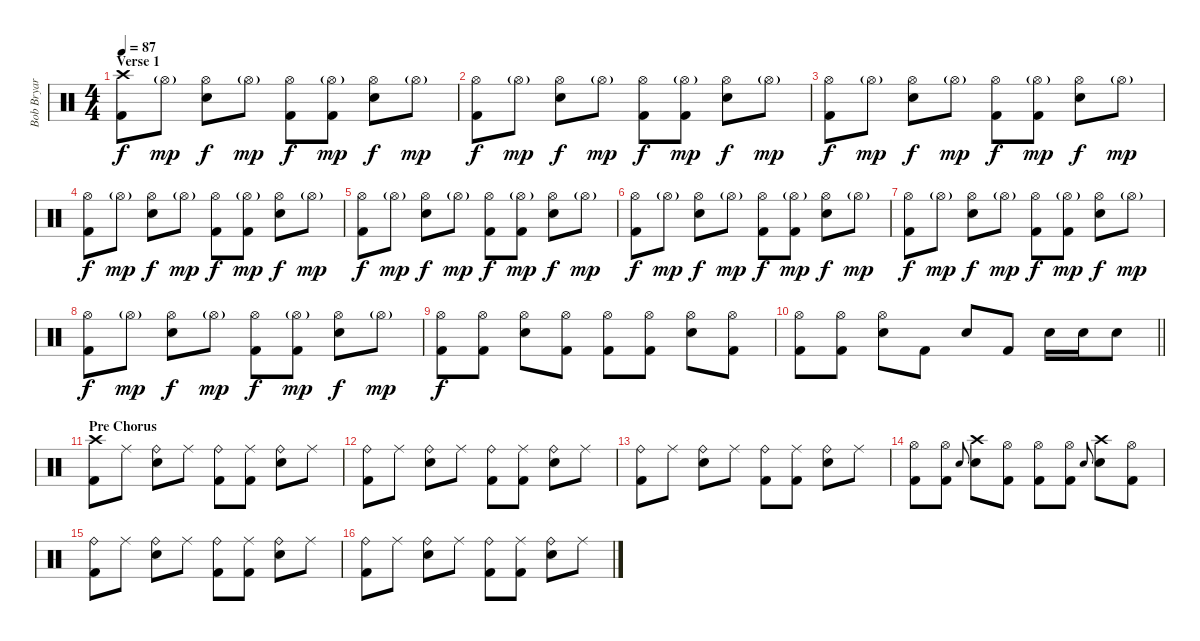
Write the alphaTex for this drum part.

\track ("Bob Bryar" "Bob Bryar") {instrument percussion}
\staff {score}
\articulation defaults
\ts (4 4)
\section ("" "Verse 1")
\tempo 87
\clef neutral
\ks c
("Crash high (hit)" "Kick (hit) 2").8{dy f} "Hi-Hat (open)"{g}.8{dy mp} ("Hi-Hat (open)" "Electric Snare (hit)").8{dy f} "Hi-Hat (open)"{g}.8{dy mp} ("Hi-Hat (open)" "Kick (hit) 2").8{dy f} ("Hi-Hat (open)"{g} "Kick (hit) 2").8{dy mp} ("Hi-Hat (open)" "Electric Snare (hit)").8{dy f} "Hi-Hat (open)"{g}.8{dy mp} |
("Hi-Hat (open)" "Kick (hit) 2").8{dy f} "Hi-Hat (open)"{g}.8{dy mp} ("Hi-Hat (open)" "Electric Snare (hit)").8{dy f} "Hi-Hat (open)"{g}.8{dy mp} ("Hi-Hat (open)" "Kick (hit) 2").8{dy f} ("Hi-Hat (open)"{g} "Kick (hit) 2").8{dy mp} ("Hi-Hat (open)" "Electric Snare (hit)").8{dy f} "Hi-Hat (open)"{g}.8{dy mp} |
("Hi-Hat (open)" "Kick (hit) 2").8{dy f} "Hi-Hat (open)"{g}.8{dy mp} ("Hi-Hat (open)" "Electric Snare (hit)").8{dy f} "Hi-Hat (open)"{g}.8{dy mp} ("Hi-Hat (open)" "Kick (hit) 2").8{dy f} ("Hi-Hat (open)"{g} "Kick (hit) 2").8{dy mp} ("Hi-Hat (open)" "Electric Snare (hit)").8{dy f} "Hi-Hat (open)"{g}.8{dy mp} |
("Hi-Hat (open)" "Kick (hit) 2").8{dy f} "Hi-Hat (open)"{g}.8{dy mp} ("Hi-Hat (open)" "Electric Snare (hit)").8{dy f} "Hi-Hat (open)"{g}.8{dy mp} ("Hi-Hat (open)" "Kick (hit) 2").8{dy f} ("Hi-Hat (open)"{g} "Kick (hit) 2").8{dy mp} ("Hi-Hat (open)" "Electric Snare (hit)").8{dy f} "Hi-Hat (open)"{g}.8{dy mp} |
("Hi-Hat (open)" "Kick (hit) 2").8{dy f} "Hi-Hat (open)"{g}.8{dy mp} ("Hi-Hat (open)" "Electric Snare (hit)").8{dy f} "Hi-Hat (open)"{g}.8{dy mp} ("Hi-Hat (open)" "Kick (hit) 2").8{dy f} ("Hi-Hat (open)"{g} "Kick (hit) 2").8{dy mp} ("Hi-Hat (open)" "Electric Snare (hit)").8{dy f} "Hi-Hat (open)"{g}.8{dy mp} |
("Hi-Hat (open)" "Kick (hit) 2").8{dy f} "Hi-Hat (open)"{g}.8{dy mp} ("Hi-Hat (open)" "Electric Snare (hit)").8{dy f} "Hi-Hat (open)"{g}.8{dy mp} ("Hi-Hat (open)" "Kick (hit) 2").8{dy f} ("Hi-Hat (open)"{g} "Kick (hit) 2").8{dy mp} ("Hi-Hat (open)" "Electric Snare (hit)").8{dy f} "Hi-Hat (open)"{g}.8{dy mp} |
("Hi-Hat (open)" "Kick (hit) 2").8{dy f} "Hi-Hat (open)"{g}.8{dy mp} ("Hi-Hat (open)" "Electric Snare (hit)").8{dy f} "Hi-Hat (open)"{g}.8{dy mp} ("Hi-Hat (open)" "Kick (hit) 2").8{dy f} ("Hi-Hat (open)"{g} "Kick (hit) 2").8{dy mp} ("Hi-Hat (open)" "Electric Snare (hit)").8{dy f} "Hi-Hat (open)"{g}.8{dy mp} |
("Hi-Hat (open)" "Kick (hit) 2").8{dy f} "Hi-Hat (open)"{g}.8{dy mp} ("Hi-Hat (open)" "Electric Snare (hit)").8{dy f} "Hi-Hat (open)"{g}.8{dy mp} ("Hi-Hat (open)" "Kick (hit) 2").8{dy f} ("Hi-Hat (open)"{g} "Kick (hit) 2").8{dy mp} ("Hi-Hat (open)" "Electric Snare (hit)").8{dy f} "Hi-Hat (open)"{g}.8{dy mp} |
("Hi-Hat (open)" "Kick (hit) 2").8{dy f} ("Hi-Hat (open)" "Kick (hit) 2").8 ("Hi-Hat (open)" "Electric Snare (hit)").8 ("Hi-Hat (open)" "Kick (hit) 2").8 ("Hi-Hat (open)" "Kick (hit) 2").8 ("Hi-Hat (open)" "Kick (hit) 2").8 ("Hi-Hat (open)" "Electric Snare (hit)").8 ("Hi-Hat (open)" "Kick (hit) 2").8 |
\barLineRight lightlight
("Hi-Hat (open)" "Kick (hit) 2").8 ("Hi-Hat (open)" "Kick (hit) 2").8 ("Hi-Hat (open)" "Electric Snare (hit)").8 "Kick (hit) 2".8 "Electric Snare (hit)".8 "Kick (hit) 2".8 "Electric Snare (hit)".16 "Electric Snare (hit)".16 "Electric Snare (hit)".8 |
\section ("" "Pre Chorus")
("Crash high (hit)" "Kick (hit) 2").8 "Ride (middle)".8 ("Ride (bell)" "Electric Snare (hit)").8 "Ride (middle)".8 ("Ride (bell)" "Kick (hit) 2").8 ("Ride (middle)" "Kick (hit) 2").8 ("Ride (bell)" "Electric Snare (hit)").8 "Ride (middle)".8 |
("Ride (bell)" "Kick (hit) 2").8 "Ride (middle)".8 ("Ride (bell)" "Electric Snare (hit)").8 "Ride (middle)".8 ("Ride (bell)" "Kick (hit) 2").8 ("Ride (middle)" "Kick (hit) 2").8 ("Ride (bell)" "Electric Snare (hit)").8 "Ride (middle)".8 |
("Ride (bell)" "Kick (hit) 2").8 "Ride (middle)".8 ("Ride (bell)" "Electric Snare (hit)").8 "Ride (middle)".8 ("Ride (bell)" "Kick (hit) 2").8 ("Ride (middle)" "Kick (hit) 2").8 ("Ride (bell)" "Electric Snare (hit)").8 "Ride (middle)".8 |
("Hi-Hat (open)" "Kick (hit) 2").8 ("Hi-Hat (open)" "Kick (hit) 2").8 "Electric Snare (hit)".8{gr onbeat} ("Crash high (hit)" "Electric Snare (hit)").8 ("Hi-Hat (open)" "Kick (hit) 2").8 ("Hi-Hat (open)" "Kick (hit) 2").8 ("Hi-Hat (open)" "Kick (hit) 2").8 "Electric Snare (hit)".8{gr onbeat} ("Crash high (hit)" "Electric Snare (hit)").8 ("Hi-Hat (open)" "Kick (hit) 2").8 |
("Ride (bell)" "Kick (hit) 2").8 "Ride (middle)".8 ("Ride (bell)" "Electric Snare (hit)").8 "Ride (middle)".8 ("Ride (bell)" "Kick (hit) 2").8 ("Ride (middle)" "Kick (hit) 2").8 ("Ride (bell)" "Electric Snare (hit)").8 "Ride (middle)".8 |
("Ride (bell)" "Kick (hit) 2").8 "Ride (middle)".8 ("Ride (bell)" "Electric Snare (hit)").8 "Ride (middle)".8 ("Ride (bell)" "Kick (hit) 2").8 ("Ride (middle)" "Kick (hit) 2").8 ("Ride (bell)" "Electric Snare (hit)").8 "Ride (middle)".8
